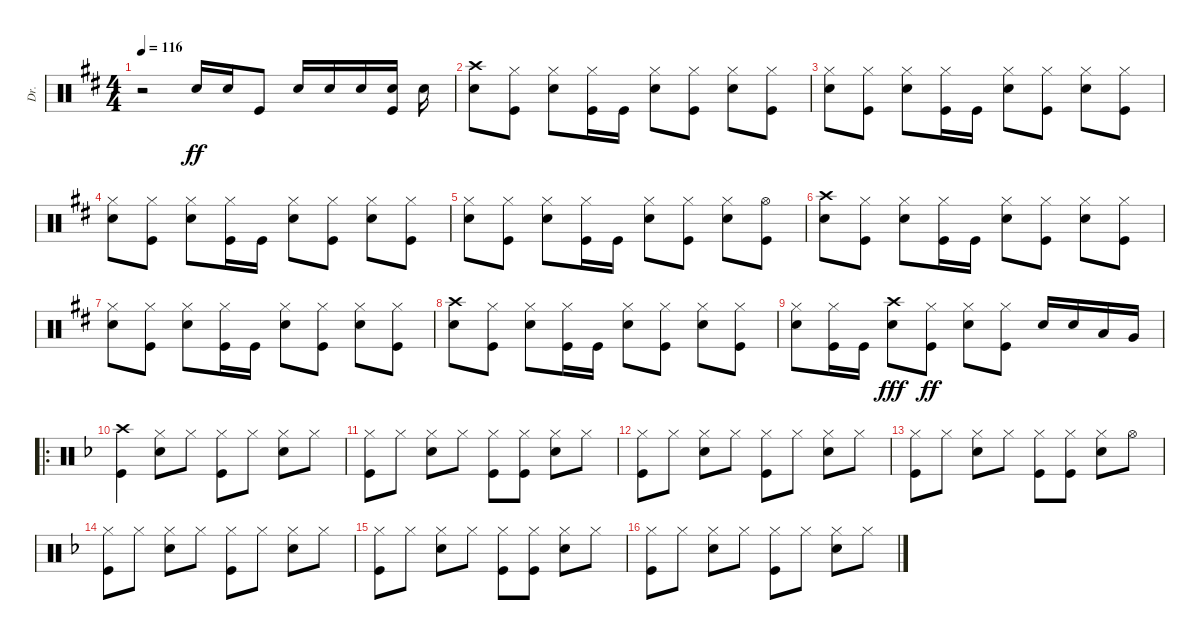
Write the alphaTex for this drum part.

\track ("Dr." "Dr.") {instrument percussion}
\staff {score}
\articulation defaults
\ts (4 4)
\tempo 116
\clef neutral
\ks d
r.2{dy ff} "Snare (hit) 2".16 "Snare (hit) 2".16 "Kick (hit)".8 "Snare (hit) 2".16 "Snare (hit) 2".16 "Snare (hit) 2".16 ("Snare (hit) 2" "Kick (hit)").16 "Snare (hit) 2".16 |
("Snare (hit) 2" "Crash high (hit)").8 ("Kick (hit)" "Hi-Hat (closed)").8 ("Snare (hit) 2" "Hi-Hat (closed)").8 ("Kick (hit)" "Hi-Hat (closed)").16 "Kick (hit)".16 ("Snare (hit) 2" "Hi-Hat (closed)").8 ("Kick (hit)" "Hi-Hat (closed)").8 ("Snare (hit) 2" "Hi-Hat (closed)").8 ("Kick (hit)" "Hi-Hat (closed)").8 |
("Snare (hit) 2" "Hi-Hat (closed)").8 ("Kick (hit)" "Hi-Hat (closed)").8 ("Snare (hit) 2" "Hi-Hat (closed)").8 ("Kick (hit)" "Hi-Hat (closed)").16 "Kick (hit)".16 ("Snare (hit) 2" "Hi-Hat (closed)").8 ("Kick (hit)" "Hi-Hat (closed)").8 ("Snare (hit) 2" "Hi-Hat (closed)").8 ("Kick (hit)" "Hi-Hat (closed)").8 |
("Snare (hit) 2" "Hi-Hat (closed)").8 ("Kick (hit)" "Hi-Hat (closed)").8 ("Snare (hit) 2" "Hi-Hat (closed)").8 ("Kick (hit)" "Hi-Hat (closed)").16 "Kick (hit)".16 ("Snare (hit) 2" "Hi-Hat (closed)").8 ("Kick (hit)" "Hi-Hat (closed)").8 ("Snare (hit) 2" "Hi-Hat (closed)").8 ("Kick (hit)" "Hi-Hat (closed)").8 |
("Snare (hit) 2" "Hi-Hat (closed)").8 ("Kick (hit)" "Hi-Hat (closed)").8 ("Snare (hit) 2" "Hi-Hat (closed)").8 ("Kick (hit)" "Hi-Hat (closed)").16 "Kick (hit)".16 ("Snare (hit) 2" "Hi-Hat (closed)").8 ("Kick (hit)" "Hi-Hat (closed)").8 ("Snare (hit) 2" "Hi-Hat (closed)").8 ("Kick (hit)" "Hi-Hat (open)").8 |
("Snare (hit) 2" "Crash high (hit)").8 ("Kick (hit)" "Hi-Hat (closed)").8 ("Snare (hit) 2" "Hi-Hat (closed)").8 ("Kick (hit)" "Hi-Hat (closed)").16 "Kick (hit)".16 ("Snare (hit) 2" "Hi-Hat (closed)").8 ("Kick (hit)" "Hi-Hat (closed)").8 ("Snare (hit) 2" "Hi-Hat (closed)").8 ("Kick (hit)" "Hi-Hat (closed)").8 |
("Snare (hit) 2" "Hi-Hat (closed)").8 ("Kick (hit)" "Hi-Hat (closed)").8 ("Snare (hit) 2" "Hi-Hat (closed)").8 ("Kick (hit)" "Hi-Hat (closed)").16 "Kick (hit)".16 ("Snare (hit) 2" "Hi-Hat (closed)").8 ("Kick (hit)" "Hi-Hat (closed)").8 ("Snare (hit) 2" "Hi-Hat (closed)").8 ("Kick (hit)" "Hi-Hat (closed)").8 |
("Snare (hit) 2" "Crash high (hit)").8 ("Kick (hit)" "Hi-Hat (closed)").8 ("Snare (hit) 2" "Hi-Hat (closed)").8 ("Kick (hit)" "Hi-Hat (closed)").16 "Kick (hit)".16 ("Snare (hit) 2" "Hi-Hat (closed)").8 ("Kick (hit)" "Hi-Hat (closed)").8 ("Snare (hit) 2" "Hi-Hat (closed)").8 ("Kick (hit)" "Hi-Hat (closed)").8 |
("Snare (hit) 2" "Hi-Hat (closed)").8 ("Kick (hit)" "Hi-Hat (closed)").16 "Kick (hit)".16 ("Snare (hit) 2" "Crash high (hit)").8{dy fff} ("Kick (hit)" "Hi-Hat (closed)").8{dy ff} ("Snare (hit) 2" "Hi-Hat (closed)").8 ("Kick (hit)" "Hi-Hat (closed)").8 "Snare (hit) 2".16 "Snare (hit) 2".16 "Low Tom (hit)".16 "Very Low Tom (hit)".16 |
\ro
\ks f
("Kick (hit)" "Crash high (hit)").4 ("Snare (hit) 2" "Hi-Hat (closed)").8 "Hi-Hat (closed)".8 ("Kick (hit)" "Hi-Hat (closed)").8 "Hi-Hat (closed)".8 ("Snare (hit) 2" "Hi-Hat (closed)").8 "Hi-Hat (closed)".8 |
("Kick (hit)" "Hi-Hat (closed)").8 "Hi-Hat (closed)".8 ("Snare (hit) 2" "Hi-Hat (closed)").8 "Hi-Hat (closed)".8 ("Kick (hit)" "Hi-Hat (closed)").8 ("Kick (hit)" "Hi-Hat (closed)").8 ("Snare (hit) 2" "Hi-Hat (closed)").8 "Hi-Hat (closed)".8 |
("Kick (hit)" "Hi-Hat (closed)").8 "Hi-Hat (closed)".8 ("Snare (hit) 2" "Hi-Hat (closed)").8 "Hi-Hat (closed)".8 ("Kick (hit)" "Hi-Hat (closed)").8 "Hi-Hat (closed)".8 ("Snare (hit) 2" "Hi-Hat (closed)").8 "Hi-Hat (closed)".8 |
("Kick (hit)" "Hi-Hat (closed)").8 "Hi-Hat (closed)".8 ("Snare (hit) 2" "Hi-Hat (closed)").8 "Hi-Hat (closed)".8 ("Kick (hit)" "Hi-Hat (closed)").8 ("Kick (hit)" "Hi-Hat (closed)").8 ("Snare (hit) 2" "Hi-Hat (closed)").8 "Hi-Hat (open)".8 |
("Kick (hit)" "Hi-Hat (closed)").8 "Hi-Hat (closed)".8 ("Snare (hit) 2" "Hi-Hat (closed)").8 "Hi-Hat (closed)".8 ("Kick (hit)" "Hi-Hat (closed)").8 "Hi-Hat (closed)".8 ("Snare (hit) 2" "Hi-Hat (closed)").8 "Hi-Hat (closed)".8 |
("Kick (hit)" "Hi-Hat (closed)").8 "Hi-Hat (closed)".8 ("Snare (hit) 2" "Hi-Hat (closed)").8 "Hi-Hat (closed)".8 ("Kick (hit)" "Hi-Hat (closed)").8 ("Kick (hit)" "Hi-Hat (closed)").8 ("Snare (hit) 2" "Hi-Hat (closed)").8 "Hi-Hat (closed)".8 |
("Kick (hit)" "Hi-Hat (closed)").8 "Hi-Hat (closed)".8 ("Snare (hit) 2" "Hi-Hat (closed)").8 "Hi-Hat (closed)".8 ("Kick (hit)" "Hi-Hat (closed)").8 "Hi-Hat (closed)".8 ("Snare (hit) 2" "Hi-Hat (closed)").8 "Hi-Hat (closed)".8
